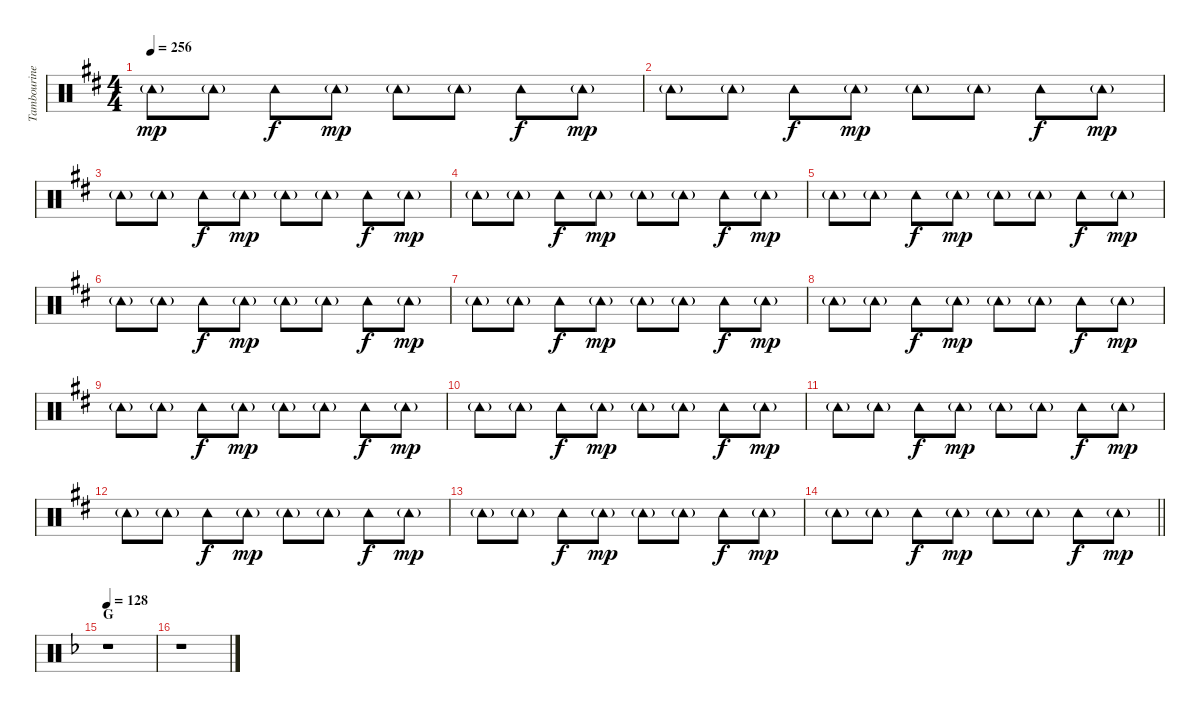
\track ("Tambourine" "Tambourine") {instrument percussion}
\staff {score}
\articulation defaults
\ts (4 4)
\tempo 256
\clef neutral
\ks d "Tambourine (hit)"{g}.8{dy mp} "Tambourine (hit)"{g}.8 "Tambourine (hit)".8{dy f} "Tambourine (hit)"{g}.8{dy mp} "Tambourine (hit)"{g}.8 "Tambourine (hit)"{g}.8 "Tambourine (hit)".8{dy f} "Tambourine (hit)"{g}.8{dy mp}
|
"Tambourine (hit)"{g}.8 "Tambourine (hit)"{g}.8 "Tambourine (hit)".8{dy f} "Tambourine (hit)"{g}.8{dy mp} "Tambourine (hit)"{g}.8 "Tambourine (hit)"{g}.8 "Tambourine (hit)".8{dy f} "Tambourine (hit)"{g}.8{dy mp} |
"Tambourine (hit)"{g}.8 "Tambourine (hit)"{g}.8 "Tambourine (hit)".8{dy f} "Tambourine (hit)"{g}.8{dy mp} "Tambourine (hit)"{g}.8 "Tambourine (hit)"{g}.8 "Tambourine (hit)".8{dy f} "Tambourine (hit)"{g}.8{dy mp} |
"Tambourine (hit)"{g}.8 "Tambourine (hit)"{g}.8 "Tambourine (hit)".8{dy f} "Tambourine (hit)"{g}.8{dy mp} "Tambourine (hit)"{g}.8 "Tambourine (hit)"{g}.8 "Tambourine (hit)".8{dy f} "Tambourine (hit)"{g}.8{dy mp} |
"Tambourine (hit)"{g}.8 "Tambourine (hit)"{g}.8 "Tambourine (hit)".8{dy f} "Tambourine (hit)"{g}.8{dy mp} "Tambourine (hit)"{g}.8 "Tambourine (hit)"{g}.8 "Tambourine (hit)".8{dy f} "Tambourine (hit)"{g}.8{dy mp} |
"Tambourine (hit)"{g}.8 "Tambourine (hit)"{g}.8 "Tambourine (hit)".8{dy f} "Tambourine (hit)"{g}.8{dy mp} "Tambourine (hit)"{g}.8 "Tambourine (hit)"{g}.8 "Tambourine (hit)".8{dy f} "Tambourine (hit)"{g}.8{dy mp} |
"Tambourine (hit)"{g}.8 "Tambourine (hit)"{g}.8 "Tambourine (hit)".8{dy f} "Tambourine (hit)"{g}.8{dy mp} "Tambourine (hit)"{g}.8 "Tambourine (hit)"{g}.8 "Tambourine (hit)".8{dy f} "Tambourine (hit)"{g}.8{dy mp} |
"Tambourine (hit)"{g}.8 "Tambourine (hit)"{g}.8 "Tambourine (hit)".8{dy f} "Tambourine (hit)"{g}.8{dy mp} "Tambourine (hit)"{g}.8 "Tambourine (hit)"{g}.8 "Tambourine (hit)".8{dy f} "Tambourine (hit)"{g}.8{dy mp} |
"Tambourine (hit)"{g}.8 "Tambourine (hit)"{g}.8 "Tambourine (hit)".8{dy f} "Tambourine (hit)"{g}.8{dy mp} "Tambourine (hit)"{g}.8 "Tambourine (hit)"{g}.8 "Tambourine (hit)".8{dy f} "Tambourine (hit)"{g}.8{dy mp} |
"Tambourine (hit)"{g}.8 "Tambourine (hit)"{g}.8 "Tambourine (hit)".8{dy f} "Tambourine (hit)"{g}.8{dy mp} "Tambourine (hit)"{g}.8 "Tambourine (hit)"{g}.8 "Tambourine (hit)".8{dy f} "Tambourine (hit)"{g}.8{dy mp} |
"Tambourine (hit)"{g}.8 "Tambourine (hit)"{g}.8 "Tambourine (hit)".8{dy f} "Tambourine (hit)"{g}.8{dy mp} "Tambourine (hit)"{g}.8 "Tambourine (hit)"{g}.8 "Tambourine (hit)".8{dy f} "Tambourine (hit)"{g}.8{dy mp} |
"Tambourine (hit)"{g}.8 "Tambourine (hit)"{g}.8 "Tambourine (hit)".8{dy f} "Tambourine (hit)"{g}.8{dy mp} "Tambourine (hit)"{g}.8 "Tambourine (hit)"{g}.8 "Tambourine (hit)".8{dy f} "Tambourine (hit)"{g}.8{dy mp} |
"Tambourine (hit)"{g}.8 "Tambourine (hit)"{g}.8 "Tambourine (hit)".8{dy f} "Tambourine (hit)"{g}.8{dy mp} "Tambourine (hit)"{g}.8 "Tambourine (hit)"{g}.8 "Tambourine (hit)".8{dy f} "Tambourine (hit)"{g}.8{dy mp} |
\barLineRight lightlight "Tambourine (hit)"{g}.8 "Tambourine (hit)"{g}.8 "Tambourine (hit)".8{dy f} "Tambourine (hit)"{g}.8{dy mp} "Tambourine (hit)"{g}.8 "Tambourine (hit)"{g}.8 "Tambourine (hit)".8{dy f} "Tambourine (hit)"{g}.8{dy mp}
|
\section ("" "G")
\tempo 128
\ks f
r.1 |
r.1
